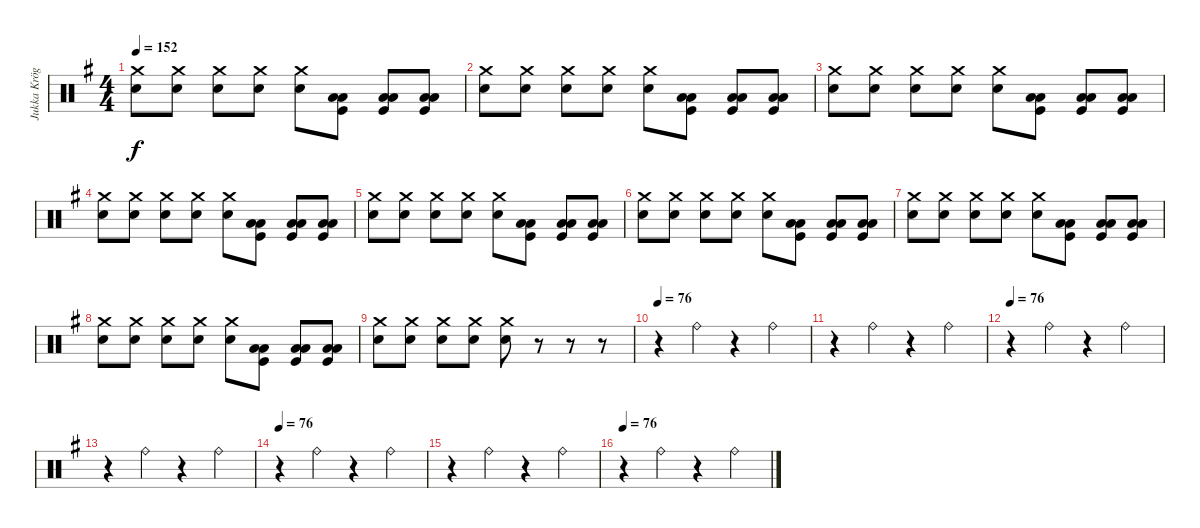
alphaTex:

\track ("Jukka Kröger" "Jukka Krög") {instrument percussion}
\staff {score}
\articulation defaults
\ts (4 4)
\tempo 152
\clef neutral
\ks eminor
("Crash medium (hit)" "Snare (hit) 2").8{dy f} ("Crash medium (hit)" "Snare (hit) 2").8 ("Crash medium (hit)" "Snare (hit) 2").8 ("Crash medium (hit)" "Snare (hit) 2").8 ("Crash medium (hit)" "Snare (hit) 2").8 ("Kick (hit)" "Low Tom (hit)" "Low Floor Tom (hit)").8 ("Kick (hit)" "Low Tom (hit)" "Low Floor Tom (hit)").8 ("Kick (hit)" "Low Tom (hit)" "Low Floor Tom (hit)").8 |
("Crash medium (hit)" "Snare (hit) 2").8 ("Crash medium (hit)" "Snare (hit) 2").8 ("Crash medium (hit)" "Snare (hit) 2").8 ("Crash medium (hit)" "Snare (hit) 2").8 ("Crash medium (hit)" "Snare (hit) 2").8 ("Kick (hit)" "Low Tom (hit)" "Low Floor Tom (hit)").8 ("Kick (hit)" "Low Tom (hit)" "Low Floor Tom (hit)").8 ("Kick (hit)" "Low Tom (hit)" "Low Floor Tom (hit)").8 |
("Crash medium (hit)" "Snare (hit) 2").8 ("Crash medium (hit)" "Snare (hit) 2").8 ("Crash medium (hit)" "Snare (hit) 2").8 ("Crash medium (hit)" "Snare (hit) 2").8 ("Crash medium (hit)" "Snare (hit) 2").8 ("Kick (hit)" "Low Tom (hit)" "Low Floor Tom (hit)").8 ("Kick (hit)" "Low Tom (hit)" "Low Floor Tom (hit)").8 ("Kick (hit)" "Low Tom (hit)" "Low Floor Tom (hit)").8 |
("Crash medium (hit)" "Snare (hit) 2").8 ("Crash medium (hit)" "Snare (hit) 2").8 ("Crash medium (hit)" "Snare (hit) 2").8 ("Crash medium (hit)" "Snare (hit) 2").8 ("Crash medium (hit)" "Snare (hit) 2").8 ("Kick (hit)" "Low Tom (hit)" "Low Floor Tom (hit)").8 ("Kick (hit)" "Low Tom (hit)" "Low Floor Tom (hit)").8 ("Kick (hit)" "Low Tom (hit)" "Low Floor Tom (hit)").8 |
("Crash medium (hit)" "Snare (hit) 2").8 ("Crash medium (hit)" "Snare (hit) 2").8 ("Crash medium (hit)" "Snare (hit) 2").8 ("Crash medium (hit)" "Snare (hit) 2").8 ("Crash medium (hit)" "Snare (hit) 2").8 ("Kick (hit)" "Low Tom (hit)" "Low Floor Tom (hit)").8 ("Kick (hit)" "Low Tom (hit)" "Low Floor Tom (hit)").8 ("Kick (hit)" "Low Tom (hit)" "Low Floor Tom (hit)").8 |
("Crash medium (hit)" "Snare (hit) 2").8 ("Crash medium (hit)" "Snare (hit) 2").8 ("Crash medium (hit)" "Snare (hit) 2").8 ("Crash medium (hit)" "Snare (hit) 2").8 ("Crash medium (hit)" "Snare (hit) 2").8 ("Kick (hit)" "Low Tom (hit)" "Low Floor Tom (hit)").8 ("Kick (hit)" "Low Tom (hit)" "Low Floor Tom (hit)").8 ("Kick (hit)" "Low Tom (hit)" "Low Floor Tom (hit)").8 |
("Crash medium (hit)" "Snare (hit) 2").8 ("Crash medium (hit)" "Snare (hit) 2").8 ("Crash medium (hit)" "Snare (hit) 2").8 ("Crash medium (hit)" "Snare (hit) 2").8 ("Crash medium (hit)" "Snare (hit) 2").8 ("Kick (hit)" "Low Tom (hit)" "Low Floor Tom (hit)").8 ("Kick (hit)" "Low Tom (hit)" "Low Floor Tom (hit)").8 ("Kick (hit)" "Low Tom (hit)" "Low Floor Tom (hit)").8 |
("Crash medium (hit)" "Snare (hit) 2").8 ("Crash medium (hit)" "Snare (hit) 2").8 ("Crash medium (hit)" "Snare (hit) 2").8 ("Crash medium (hit)" "Snare (hit) 2").8 ("Crash medium (hit)" "Snare (hit) 2").8 ("Kick (hit)" "Low Tom (hit)" "Low Floor Tom (hit)").8 ("Kick (hit)" "Low Tom (hit)" "Low Floor Tom (hit)").8 ("Kick (hit)" "Low Tom (hit)" "Low Floor Tom (hit)").8 |
("Crash medium (hit)" "Snare (hit) 2").8 ("Crash medium (hit)" "Snare (hit) 2").8 ("Crash medium (hit)" "Snare (hit) 2").8 ("Crash medium (hit)" "Snare (hit) 2").8 ("Crash medium (hit)" "Snare (hit) 2").8 r.8 r.8 r.8 |
\tempo 76
r.4 "Ride (bell)".4 r.4 "Ride (bell)".4 |
r.4 "Ride (bell)".4 r.4 "Ride (bell)".4 |
\tempo 76
r.4 "Ride (bell)".4 r.4 "Ride (bell)".4 |
r.4 "Ride (bell)".4 r.4 "Ride (bell)".4 |
\tempo 76
r.4 "Ride (bell)".4 r.4 "Ride (bell)".4 |
r.4 "Ride (bell)".4 r.4 "Ride (bell)".4 |
\tempo 76
r.4 "Ride (bell)".4 r.4 "Ride (bell)".4
